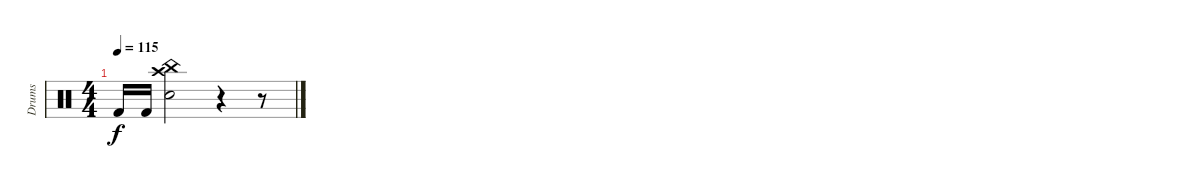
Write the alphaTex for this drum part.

\track ("Drums" "Drums") {instrument percussion}
\staff {score}
\articulation defaults
\ts (4 4)
\tempo 115
\clef neutral
\ks c "Kick (hit) 2".16{dy f} "Kick (hit) 2".16
("China (hit)" "Crash high (hit)" "Snare (hit) 2").2 r.4 r.8
